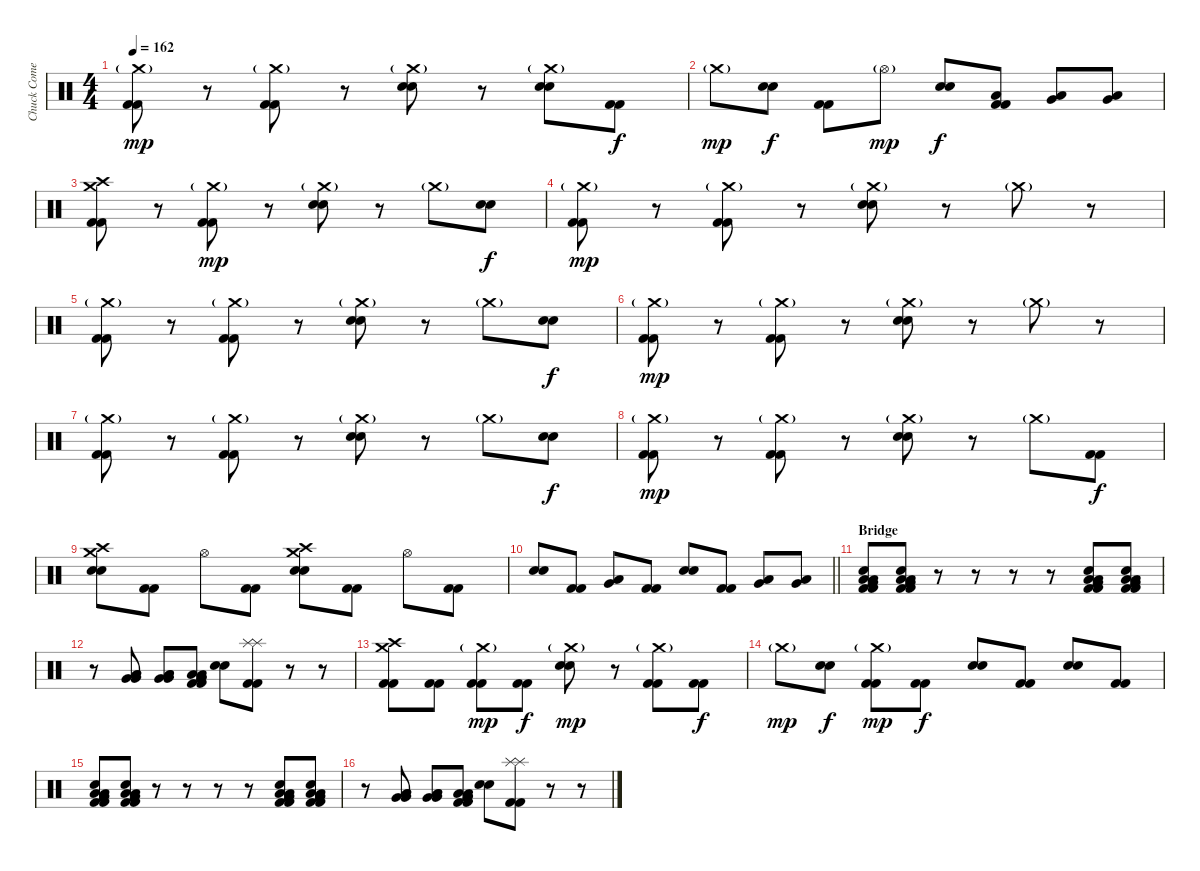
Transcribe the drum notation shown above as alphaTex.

\track ("Chuck Comeau" "Chuck Come") {instrument percussion}
\staff {score}
\articulation defaults
\ts (4 4)
\tempo 162
\clef neutral
\ks c
("Crash medium (hit)"{g} "Kick (hit) 2" "Kick (hit) 2").8{dy mp} r.8 ("Crash medium (hit)"{g} "Kick (hit) 2" "Kick (hit) 2").8 r.8 ("Crash medium (hit)"{g} "Snare (hit) 2" "Snare (hit) 2").8 r.8 ("Crash medium (hit)"{g} "Snare (hit) 2" "Snare (hit) 2").8 ("Kick (hit) 2" "Kick (hit) 2").8{dy f} |
"Crash medium (hit)"{g}.8{dy mp} ("Snare (hit) 2" "Snare (hit) 2").8{dy f} ("Kick (hit) 2" "Kick (hit) 2").8 "Hi-Hat (open)"{g}.8{dy mp} ("Snare (hit) 2" "Snare (hit) 2"{tr (38 16)}).8{dy f} ("Low Tom (hit)" "Kick (hit) 2" "Kick (hit) 2").8 ("Low Tom (hit)" "Very Low Tom (hit)").8 ("Very Low Tom (hit)" "Low Floor Tom (hit)").8 |
("Crash medium (hit)" "Crash high (hit)" "Kick (hit) 2" "Kick (hit) 2").8 r.8 ("Crash medium (hit)"{g} "Kick (hit) 2" "Kick (hit) 2").8{dy mp} r.8 ("Crash medium (hit)"{g} "Snare (hit) 2" "Snare (hit) 2").8 r.8 "Crash medium (hit)"{g}.8 ("Snare (hit) 2" "Snare (hit) 2").8{dy f} |
("Crash medium (hit)"{g} "Kick (hit) 2" "Kick (hit) 2").8{dy mp} r.8 ("Crash medium (hit)"{g} "Kick (hit) 2" "Kick (hit) 2").8 r.8 ("Crash medium (hit)"{g} "Snare (hit) 2" "Snare (hit) 2").8 r.8 "Crash medium (hit)"{g}.8 r.8 |
("Crash medium (hit)"{g} "Kick (hit) 2" "Kick (hit) 2").8 r.8 ("Crash medium (hit)"{g} "Kick (hit) 2" "Kick (hit) 2").8 r.8 ("Crash medium (hit)"{g} "Snare (hit) 2" "Snare (hit) 2").8 r.8 "Crash medium (hit)"{g}.8 ("Snare (hit) 2" "Snare (hit) 2").8{dy f} |
("Crash medium (hit)"{g} "Kick (hit) 2" "Kick (hit) 2").8{dy mp} r.8 ("Crash medium (hit)"{g} "Kick (hit) 2" "Kick (hit) 2").8 r.8 ("Crash medium (hit)"{g} "Snare (hit) 2" "Snare (hit) 2").8 r.8 "Crash medium (hit)"{g}.8 r.8 |
("Crash medium (hit)"{g} "Kick (hit) 2" "Kick (hit) 2").8 r.8 ("Crash medium (hit)"{g} "Kick (hit) 2" "Kick (hit) 2").8 r.8 ("Crash medium (hit)"{g} "Snare (hit) 2" "Snare (hit) 2").8 r.8 "Crash medium (hit)"{g}.8 ("Snare (hit) 2" "Snare (hit) 2").8{dy f} |
("Crash medium (hit)"{g} "Kick (hit) 2" "Kick (hit) 2").8{dy mp} r.8 ("Crash medium (hit)"{g} "Kick (hit) 2" "Kick (hit) 2").8 r.8 ("Crash medium (hit)"{g} "Snare (hit) 2" "Snare (hit) 2").8 r.8 "Crash medium (hit)"{g}.8 ("Kick (hit) 2" "Kick (hit) 2").8{dy f} |
("Crash medium (hit)" "Crash high (hit)" "Snare (hit) 2" "Snare (hit) 2").8 ("Kick (hit) 2" "Kick (hit) 2").8 "Hi-Hat (open)".8 ("Kick (hit) 2" "Kick (hit) 2").8 ("Crash medium (hit)" "Crash high (hit)" "Snare (hit) 2" "Snare (hit) 2").8 ("Kick (hit) 2" "Kick (hit) 2").8 "Hi-Hat (open)".8 ("Kick (hit) 2" "Kick (hit) 2").8 |
\barLineRight lightlight
("Snare (hit) 2" "Snare (hit) 2").8 ("Kick (hit) 2" "Kick (hit) 2").8 ("Low Tom (hit)" "Very Low Tom (hit)").8 ("Kick (hit) 2" "Kick (hit) 2").8 ("Snare (hit) 2" "Snare (hit) 2").8 ("Kick (hit) 2" "Kick (hit) 2").8 ("Low Tom (hit)" "Very Low Tom (hit)").8 ("Very Low Tom (hit)" "Low Floor Tom (hit)").8 |
\section ("" "Bridge")
("Low Floor Tom (hit)" "Snare (hit) 2" "Very Low Tom (hit)" "Low Floor Tom (hit)" "Kick (hit) 2" "Kick (hit) 2").8 ("Low Floor Tom (hit)" "Snare (hit) 2" "Very Low Tom (hit)" "Low Floor Tom (hit)" "Kick (hit) 2" "Kick (hit) 2").8 r.8 r.8 r.8 r.8 ("Low Floor Tom (hit)" "Snare (hit) 2" "Very Low Tom (hit)" "Low Floor Tom (hit)" "Kick (hit) 2" "Kick (hit) 2").8 ("Low Floor Tom (hit)" "Snare (hit) 2" "Very Low Tom (hit)" "Low Floor Tom (hit)" "Kick (hit) 2" "Kick (hit) 2").8 |
r.8 ("Very Low Tom (hit)" "Very Low Tom (hit)" "Low Floor Tom (hit)" "Low Floor Tom (hit)").8 ("Very Low Tom (hit)" "Very Low Tom (hit)" "Low Floor Tom (hit)" "Low Floor Tom (hit)").8 ("Low Floor Tom (hit)" "Low Floor Tom (hit)" "Very Low Tom (hit)" "Very Low Tom (hit)" "Kick (hit) 2" "Kick (hit) 2").8 ("Snare (hit) 2" "Snare (hit) 2").8 ("Splash (hit)" "Splash (hit)" "Kick (hit) 2" "Kick (hit) 2").8 r.8 r.8 |
("Crash medium (hit)" "Crash high (hit)" "Kick (hit) 2" "Kick (hit) 2").8 ("Kick (hit) 2" "Kick (hit) 2").8 ("Crash medium (hit)"{g} "Kick (hit) 2" "Kick (hit) 2").8{dy mp} ("Kick (hit) 2" "Kick (hit) 2").8{dy f} ("Crash medium (hit)"{g} "Snare (hit) 2" "Snare (hit) 2").8{dy mp} r.8 ("Crash medium (hit)"{g} "Kick (hit) 2" "Kick (hit) 2").8 ("Kick (hit) 2" "Kick (hit) 2").8{dy f} |
"Crash medium (hit)"{g}.8{dy mp} ("Snare (hit) 2" "Snare (hit) 2").8{dy f} ("Crash medium (hit)"{g} "Kick (hit) 2" "Kick (hit) 2").8{dy mp} ("Kick (hit) 2" "Kick (hit) 2").8{dy f} ("Snare (hit) 2" "Snare (hit) 2"{tr (38 16)}).8 ("Kick (hit) 2" "Kick (hit) 2").8 ("Snare (hit) 2" "Snare (hit) 2"{tr (38 16)}).8 ("Kick (hit) 2" "Kick (hit) 2").8 |
("Low Floor Tom (hit)" "Snare (hit) 2" "Very Low Tom (hit)" "Low Floor Tom (hit)" "Kick (hit) 2" "Kick (hit) 2").8 ("Low Floor Tom (hit)" "Snare (hit) 2" "Very Low Tom (hit)" "Low Floor Tom (hit)" "Kick (hit) 2" "Kick (hit) 2").8 r.8 r.8 r.8 r.8 ("Low Floor Tom (hit)" "Snare (hit) 2" "Very Low Tom (hit)" "Low Floor Tom (hit)" "Kick (hit) 2" "Kick (hit) 2").8 ("Low Floor Tom (hit)" "Snare (hit) 2" "Very Low Tom (hit)" "Low Floor Tom (hit)" "Kick (hit) 2" "Kick (hit) 2").8 |
r.8 ("Very Low Tom (hit)" "Very Low Tom (hit)" "Low Floor Tom (hit)" "Low Floor Tom (hit)").8 ("Very Low Tom (hit)" "Very Low Tom (hit)" "Low Floor Tom (hit)" "Low Floor Tom (hit)").8 ("Low Floor Tom (hit)" "Low Floor Tom (hit)" "Very Low Tom (hit)" "Very Low Tom (hit)" "Kick (hit) 2" "Kick (hit) 2").8 ("Snare (hit) 2" "Snare (hit) 2").8 ("Splash (hit)" "Splash (hit)" "Kick (hit) 2" "Kick (hit) 2").8 r.8 r.8
